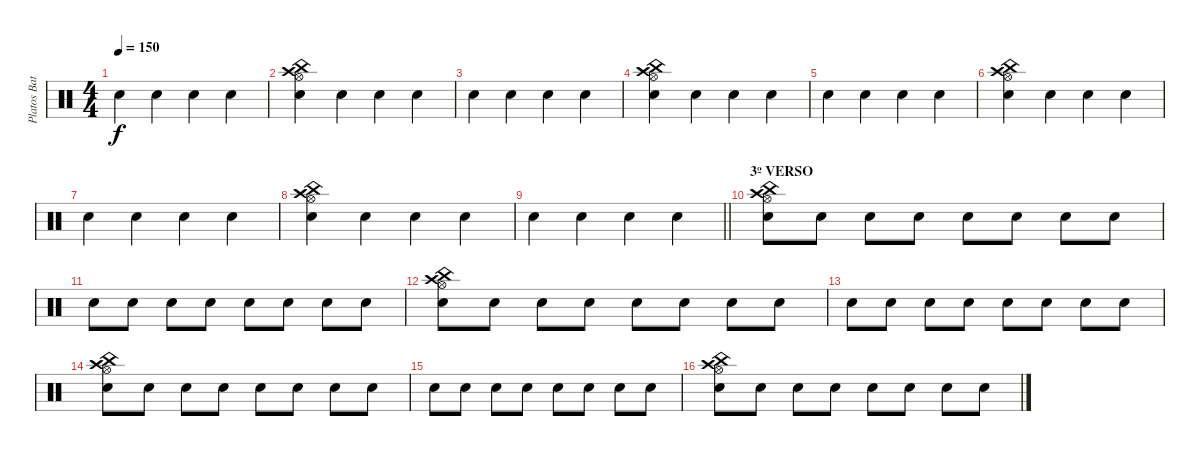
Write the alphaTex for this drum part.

\track ("Platos Batería" "Platos Bat") {instrument percussion}
\staff {score}
\articulation defaults
\ts (4 4)
\tempo 150
\clef neutral
\ks c "Hand Clap (hit)".4{dy f} "Hand Clap (hit)".4 "Hand Clap (hit)".4 "Hand Clap (hit)".4
|
("Crash high (hit)" "China (hit)" "Hi-Hat (open)" "Hand Clap (hit)").4 "Hand Clap (hit)".4 "Hand Clap (hit)".4 "Hand Clap (hit)".4 |
"Hand Clap (hit)".4 "Hand Clap (hit)".4 "Hand Clap (hit)".4 "Hand Clap (hit)".4 |
("Crash high (hit)" "China (hit)" "Hi-Hat (open)" "Hand Clap (hit)").4 "Hand Clap (hit)".4 "Hand Clap (hit)".4 "Hand Clap (hit)".4 |
"Hand Clap (hit)".4 "Hand Clap (hit)".4 "Hand Clap (hit)".4 "Hand Clap (hit)".4 |
("Crash high (hit)" "China (hit)" "Hi-Hat (open)" "Hand Clap (hit)").4 "Hand Clap (hit)".4 "Hand Clap (hit)".4 "Hand Clap (hit)".4 |
"Hand Clap (hit)".4 "Hand Clap (hit)".4 "Hand Clap (hit)".4 "Hand Clap (hit)".4 |
("Crash high (hit)" "China (hit)" "Hi-Hat (open)" "Hand Clap (hit)").4 "Hand Clap (hit)".4 "Hand Clap (hit)".4 "Hand Clap (hit)".4 |
\barLineRight lightlight "Hand Clap (hit)".4 "Hand Clap (hit)".4 "Hand Clap (hit)".4 "Hand Clap (hit)".4
|
\section ("" "3º VERSO")
("Crash high (hit)" "China (hit)" "Hi-Hat (open)" "Hand Clap (hit)").8 "Hand Clap (hit)".8 "Hand Clap (hit)".8 "Hand Clap (hit)".8 "Hand Clap (hit)".8 "Hand Clap (hit)".8 "Hand Clap (hit)".8 "Hand Clap (hit)".8 |
"Hand Clap (hit)".8 "Hand Clap (hit)".8 "Hand Clap (hit)".8 "Hand Clap (hit)".8 "Hand Clap (hit)".8 "Hand Clap (hit)".8 "Hand Clap (hit)".8 "Hand Clap (hit)".8 |
("Crash high (hit)" "China (hit)" "Hi-Hat (open)" "Hand Clap (hit)").8 "Hand Clap (hit)".8 "Hand Clap (hit)".8 "Hand Clap (hit)".8 "Hand Clap (hit)".8 "Hand Clap (hit)".8 "Hand Clap (hit)".8 "Hand Clap (hit)".8 |
"Hand Clap (hit)".8 "Hand Clap (hit)".8 "Hand Clap (hit)".8 "Hand Clap (hit)".8 "Hand Clap (hit)".8 "Hand Clap (hit)".8 "Hand Clap (hit)".8 "Hand Clap (hit)".8 |
("Crash high (hit)" "China (hit)" "Hi-Hat (open)" "Hand Clap (hit)").8 "Hand Clap (hit)".8 "Hand Clap (hit)".8 "Hand Clap (hit)".8 "Hand Clap (hit)".8 "Hand Clap (hit)".8 "Hand Clap (hit)".8 "Hand Clap (hit)".8 |
"Hand Clap (hit)".8 "Hand Clap (hit)".8 "Hand Clap (hit)".8 "Hand Clap (hit)".8 "Hand Clap (hit)".8 "Hand Clap (hit)".8 "Hand Clap (hit)".8 "Hand Clap (hit)".8 |
("Crash high (hit)" "China (hit)" "Hi-Hat (open)" "Hand Clap (hit)").8 "Hand Clap (hit)".8 "Hand Clap (hit)".8 "Hand Clap (hit)".8 "Hand Clap (hit)".8 "Hand Clap (hit)".8 "Hand Clap (hit)".8 "Hand Clap (hit)".8
